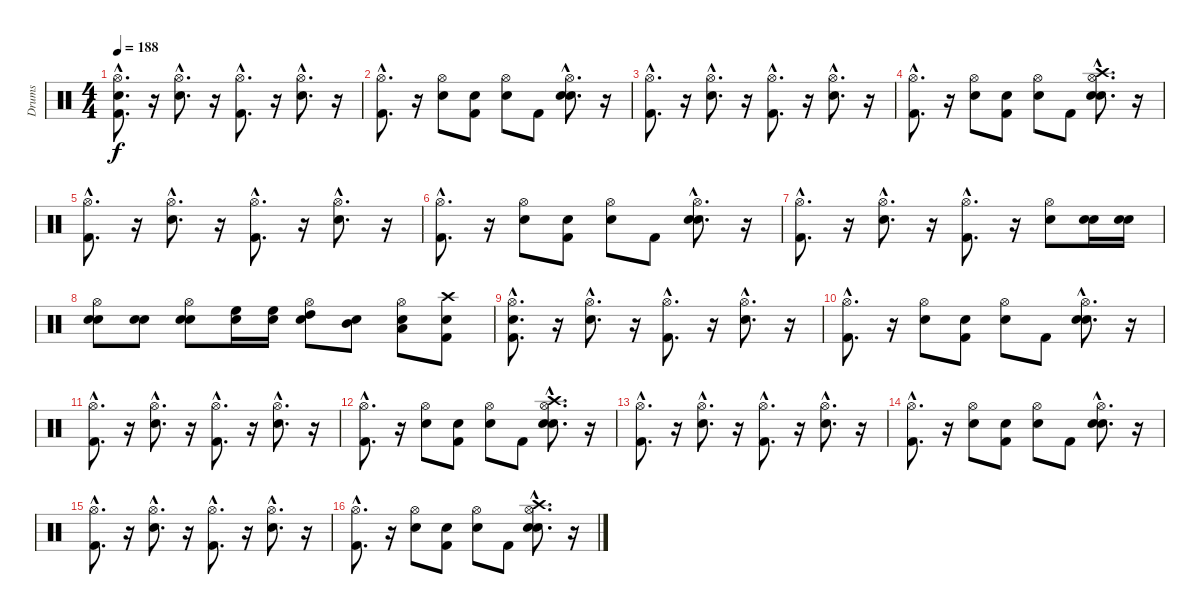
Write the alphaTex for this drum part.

\track ("Drums" "Drums") {instrument percussion}
\staff {score}
\articulation defaults
\ts (4 4)
\tempo 188
\clef neutral
\ks c
("Snare (hit)"{hac} "Kick (hit) 2"{hac} "Hi-Hat (open)"{hac}).8{d dy f} r.16 ("Snare (hit) 2"{hac} "Hi-Hat (open)"{hac}).8{d} r.16 ("Kick (hit) 2"{hac} "Hi-Hat (open)"{hac}).8{d} r.16 ("Snare (hit) 2"{hac} "Hi-Hat (open)"{hac}).8{d} r.16 |
("Kick (hit) 2"{hac} "Hi-Hat (open)"{hac}).8{d} r.16 ("Snare (hit) 2" "Hi-Hat (open)").8 ("Snare (hit)" "Kick (hit) 2").8 ("Snare (hit)" "Hi-Hat (open)").8 "Kick (hit) 2".8 ("Snare (hit)"{hac} "Snare (hit) 2"{hac} "Hi-Hat (open)"{hac}).8{d} r.16 |
("Kick (hit) 2"{hac} "Hi-Hat (open)"{hac}).8{d} r.16 ("Snare (hit) 2"{hac} "Hi-Hat (open)"{hac}).8{d} r.16 ("Kick (hit) 2"{hac} "Hi-Hat (open)"{hac}).8{d} r.16 ("Snare (hit) 2"{hac} "Hi-Hat (open)"{hac}).8{d} r.16 |
("Kick (hit) 2"{hac} "Hi-Hat (open)"{hac}).8{d} r.16 ("Snare (hit) 2" "Hi-Hat (open)").8 ("Snare (hit)" "Kick (hit) 2").8 ("Snare (hit)" "Hi-Hat (open)").8 "Kick (hit) 2".8 ("Snare (hit)"{hac} "Snare (hit) 2"{hac} "Hi-Hat (open)"{hac} "Crash high (hit)"{hac}).8{d} r.16 |
("Kick (hit) 2"{hac} "Hi-Hat (open)"{hac}).8{d} r.16 ("Snare (hit) 2"{hac} "Hi-Hat (open)"{hac}).8{d} r.16 ("Kick (hit) 2"{hac} "Hi-Hat (open)"{hac}).8{d} r.16 ("Snare (hit) 2"{hac} "Hi-Hat (open)"{hac}).8{d} r.16 |
("Kick (hit) 2"{hac} "Hi-Hat (open)"{hac}).8{d} r.16 ("Snare (hit) 2" "Hi-Hat (open)").8 ("Snare (hit)" "Kick (hit) 2").8 ("Snare (hit)" "Hi-Hat (open)").8 "Kick (hit) 2".8 ("Snare (hit)"{hac} "Snare (hit) 2"{hac} "Hi-Hat (open)"{hac}).8{d} r.16 |
("Kick (hit) 2"{hac} "Hi-Hat (open)"{hac}).8{d} r.16 ("Snare (hit) 2"{hac} "Hi-Hat (open)"{hac}).8{d} r.16 ("Kick (hit) 2"{hac} "Hi-Hat (open)"{hac}).8{d} r.16 ("Snare (hit) 2" "Hi-Hat (open)").8 ("Snare (hit)" "Snare (hit) 2").16 ("Snare (hit)" "Snare (hit) 2").16 |
("Snare (hit)" "Snare (hit) 2" "Hi-Hat (open)").8 ("Snare (hit)" "Snare (hit) 2").8 ("Snare (hit)" "Snare (hit) 2" "Hi-Hat (open)").8 ("Snare (hit)" "High Floor Tom (hit)").16 ("Snare (hit)" "High Floor Tom (hit)").16 ("Snare (hit)" "Hi-Hat (open)" "High Tom (hit)").8 ("Snare (hit)" "Mid Tom (hit)").8 ("Snare (hit)" "Low Tom (hit)" "Hi-Hat (open)").8 ("Snare (hit)" "Kick (hit) 2" "Crash high (hit)").8 |
("Snare (hit)"{hac} "Kick (hit) 2"{hac} "Hi-Hat (open)"{hac}).8{d} r.16 ("Snare (hit) 2"{hac} "Hi-Hat (open)"{hac}).8{d} r.16 ("Kick (hit) 2"{hac} "Hi-Hat (open)"{hac}).8{d} r.16 ("Snare (hit) 2"{hac} "Hi-Hat (open)"{hac}).8{d} r.16 |
("Kick (hit) 2"{hac} "Hi-Hat (open)"{hac}).8{d} r.16 ("Snare (hit) 2" "Hi-Hat (open)").8 ("Snare (hit)" "Kick (hit) 2").8 ("Snare (hit)" "Hi-Hat (open)").8 "Kick (hit) 2".8 ("Snare (hit)"{hac} "Snare (hit) 2"{hac} "Hi-Hat (open)"{hac}).8{d} r.16 |
("Kick (hit) 2"{hac} "Hi-Hat (open)"{hac}).8{d} r.16 ("Snare (hit) 2"{hac} "Hi-Hat (open)"{hac}).8{d} r.16 ("Kick (hit) 2"{hac} "Hi-Hat (open)"{hac}).8{d} r.16 ("Snare (hit) 2"{hac} "Hi-Hat (open)"{hac}).8{d} r.16 |
("Kick (hit) 2"{hac} "Hi-Hat (open)"{hac}).8{d} r.16 ("Snare (hit) 2" "Hi-Hat (open)").8 ("Snare (hit)" "Kick (hit) 2").8 ("Snare (hit)" "Hi-Hat (open)").8 "Kick (hit) 2".8 ("Snare (hit)"{hac} "Snare (hit) 2"{hac} "Hi-Hat (open)"{hac} "Crash high (hit)"{hac}).8{d} r.16 |
("Kick (hit) 2"{hac} "Hi-Hat (open)"{hac}).8{d} r.16 ("Snare (hit) 2"{hac} "Hi-Hat (open)"{hac}).8{d} r.16 ("Kick (hit) 2"{hac} "Hi-Hat (open)"{hac}).8{d} r.16 ("Snare (hit) 2"{hac} "Hi-Hat (open)"{hac}).8{d} r.16 |
("Kick (hit) 2"{hac} "Hi-Hat (open)"{hac}).8{d} r.16 ("Snare (hit) 2" "Hi-Hat (open)").8 ("Snare (hit)" "Kick (hit) 2").8 ("Snare (hit)" "Hi-Hat (open)").8 "Kick (hit) 2".8 ("Snare (hit)"{hac} "Snare (hit) 2"{hac} "Hi-Hat (open)"{hac}).8{d} r.16 |
("Kick (hit) 2"{hac} "Hi-Hat (open)"{hac}).8{d} r.16 ("Snare (hit) 2"{hac} "Hi-Hat (open)"{hac}).8{d} r.16 ("Kick (hit) 2"{hac} "Hi-Hat (open)"{hac}).8{d} r.16 ("Snare (hit) 2"{hac} "Hi-Hat (open)"{hac}).8{d} r.16 |
("Kick (hit) 2"{hac} "Hi-Hat (open)"{hac}).8{d} r.16 ("Snare (hit) 2" "Hi-Hat (open)").8 ("Snare (hit)" "Kick (hit) 2").8 ("Snare (hit)" "Hi-Hat (open)").8 "Kick (hit) 2".8 ("Snare (hit)"{hac} "Snare (hit) 2"{hac} "Hi-Hat (open)"{hac} "Crash high (hit)"{hac}).8{d} r.16
